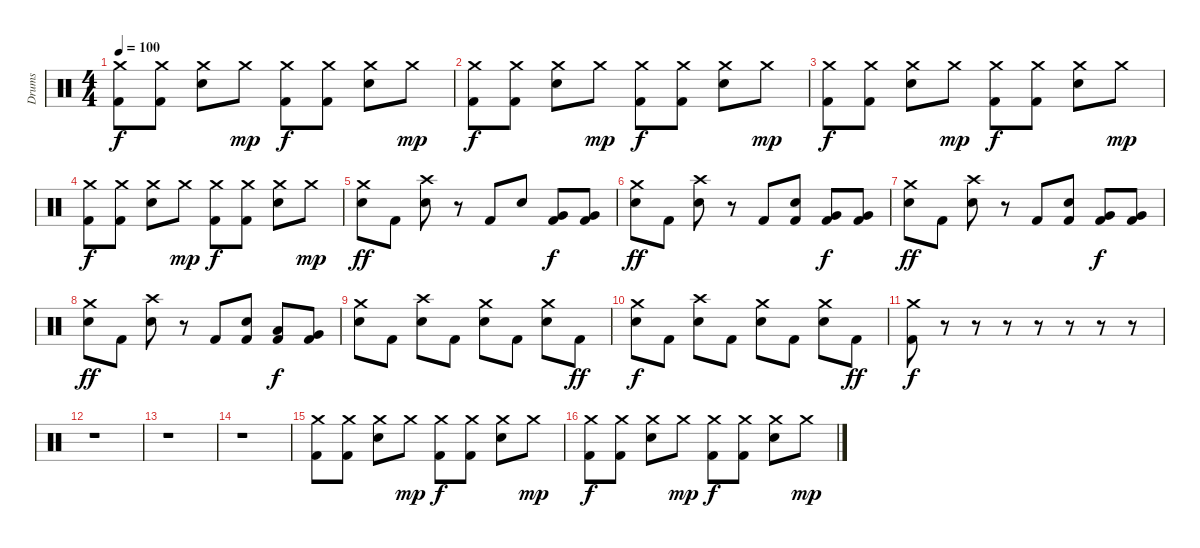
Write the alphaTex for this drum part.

\track ("Drums" "Drums") {instrument percussion}
\staff {score}
\articulation defaults
\ts (4 4)
\tempo 100
\clef neutral
\ks c
("Crash medium (hit)" "Kick (hit) 2").8{dy f} ("Crash medium (hit)" "Kick (hit) 2").8 ("Crash medium (hit)" "Electric Snare (hit)").8 "Crash medium (hit)".8{dy mp} ("Crash medium (hit)" "Kick (hit) 2").8{dy f} ("Crash medium (hit)" "Kick (hit) 2").8 ("Crash medium (hit)" "Electric Snare (hit)").8 "Crash medium (hit)".8{dy mp} |
("Crash medium (hit)" "Kick (hit) 2").8{dy f} ("Crash medium (hit)" "Kick (hit) 2").8 ("Crash medium (hit)" "Electric Snare (hit)").8 "Crash medium (hit)".8{dy mp} ("Crash medium (hit)" "Kick (hit) 2").8{dy f} ("Crash medium (hit)" "Kick (hit) 2").8 ("Crash medium (hit)" "Electric Snare (hit)").8 "Crash medium (hit)".8{dy mp} |
("Crash medium (hit)" "Kick (hit) 2").8{dy f} ("Crash medium (hit)" "Kick (hit) 2").8 ("Crash medium (hit)" "Electric Snare (hit)").8 "Crash medium (hit)".8{dy mp} ("Crash medium (hit)" "Kick (hit) 2").8{dy f} ("Crash medium (hit)" "Kick (hit) 2").8 ("Crash medium (hit)" "Electric Snare (hit)").8 "Crash medium (hit)".8{dy mp} |
("Crash medium (hit)" "Kick (hit) 2").8{dy f} ("Crash medium (hit)" "Kick (hit) 2").8 ("Crash medium (hit)" "Electric Snare (hit)").8 "Crash medium (hit)".8{dy mp} ("Crash medium (hit)" "Kick (hit) 2").8{dy f} ("Crash medium (hit)" "Kick (hit) 2").8 ("Crash medium (hit)" "Electric Snare (hit)").8 "Crash medium (hit)".8{dy mp} |
("Crash medium (hit)" "Electric Snare (hit)").8{dy ff} "Kick (hit) 2".8 ("Crash high (hit)" "Electric Snare (hit)").8 r.8 "Kick (hit) 2".8 "Electric Snare (hit)".8 ("Very Low Tom (hit)" "Kick (hit) 2").8{dy f} ("Very Low Tom (hit)" "Kick (hit) 2").8 |
("Crash medium (hit)" "Electric Snare (hit)").8{dy ff} "Kick (hit) 2".8 ("Crash high (hit)" "Electric Snare (hit)").8 r.8 "Kick (hit) 2".8 ("Electric Snare (hit)" "Kick (hit) 2").8 ("Very Low Tom (hit)" "Kick (hit) 2").8{dy f} ("Very Low Tom (hit)" "Kick (hit) 2").8 |
("Crash medium (hit)" "Electric Snare (hit)").8{dy ff} "Kick (hit) 2".8 ("Crash high (hit)" "Electric Snare (hit)").8 r.8 "Kick (hit) 2".8 ("Electric Snare (hit)" "Kick (hit) 2").8 ("Very Low Tom (hit)" "Kick (hit) 2").8{dy f} ("Very Low Tom (hit)" "Kick (hit) 2").8 |
("Crash medium (hit)" "Electric Snare (hit)").8{dy ff} "Kick (hit) 2".8 ("Crash high (hit)" "Electric Snare (hit)").8 r.8 "Kick (hit) 2".8 ("Electric Snare (hit)" "Kick (hit) 2").8 ("Low Tom (hit)" "Kick (hit) 2").8{dy f} ("Very Low Tom (hit)" "Kick (hit) 2").8 |
("Crash medium (hit)" "Electric Snare (hit)").8 "Kick (hit) 2".8 ("Crash high (hit)" "Electric Snare (hit)").8 "Kick (hit) 2".8 ("Crash medium (hit)" "Electric Snare (hit)").8 "Kick (hit) 2".8 ("Crash medium (hit)" "Electric Snare (hit)").8 "Kick (hit) 2".8{dy ff} |
("Crash medium (hit)" "Electric Snare (hit)").8{dy f} "Kick (hit) 2".8 ("Crash high (hit)" "Electric Snare (hit)").8 "Kick (hit) 2".8 ("Crash medium (hit)" "Electric Snare (hit)").8 "Kick (hit) 2".8 ("Crash medium (hit)" "Electric Snare (hit)").8 "Kick (hit) 2".8{dy ff} |
("Crash medium (hit)" "Kick (hit) 2").8{dy f} r.8 r.8 r.8 r.8 r.8 r.8 r.8 |
r.1 |
r.1 |
r.1 |
("Crash medium (hit)" "Kick (hit) 2").8 ("Crash medium (hit)" "Kick (hit) 2").8 ("Crash medium (hit)" "Electric Snare (hit)").8 "Crash medium (hit)".8{dy mp} ("Crash medium (hit)" "Kick (hit) 2").8{dy f} ("Crash medium (hit)" "Kick (hit) 2").8 ("Crash medium (hit)" "Electric Snare (hit)").8 "Crash medium (hit)".8{dy mp} |
("Crash medium (hit)" "Kick (hit) 2").8{dy f} ("Crash medium (hit)" "Kick (hit) 2").8 ("Crash medium (hit)" "Electric Snare (hit)").8 "Crash medium (hit)".8{dy mp} ("Crash medium (hit)" "Kick (hit) 2").8{dy f} ("Crash medium (hit)" "Kick (hit) 2").8 ("Crash medium (hit)" "Electric Snare (hit)").8 "Crash medium (hit)".8{dy mp}
